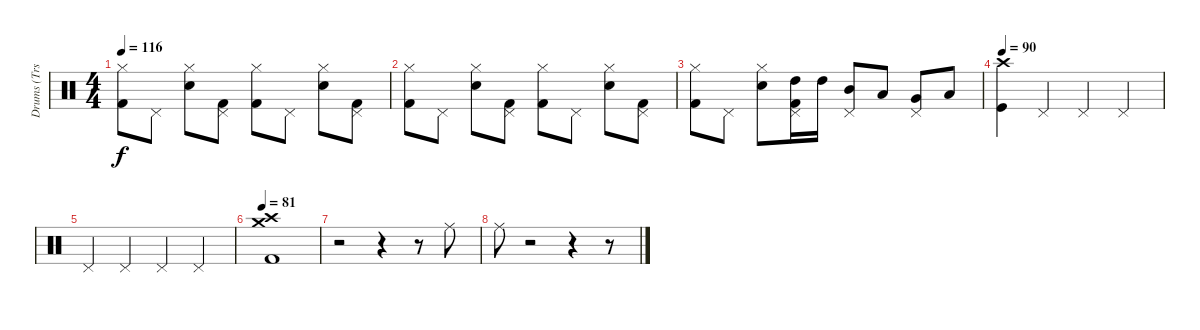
\track ("Drums (Trs. 7-8A, 10A/7-8B, 10B, 12-13B)" "Drums (Trs") {mute instrument percussion}
\staff {score}
\articulation defaults
\ts (4 4)
\tempo 116
\clef neutral
\ks c
("Hi-Hat (closed)" "Kick (hit) 2").8{dy f} "Pedal Hi-Hat (hit)".8 ("Electric Snare (hit)" "Hi-Hat (closed)").8 ("Pedal Hi-Hat (hit)" "Kick (hit) 2").8 ("Hi-Hat (closed)" "Kick (hit) 2").8 "Pedal Hi-Hat (hit)".8 ("Electric Snare (hit)" "Hi-Hat (closed)").8 ("Pedal Hi-Hat (hit)" "Kick (hit) 2").8 |
("Hi-Hat (closed)" "Kick (hit) 2").8 "Pedal Hi-Hat (hit)".8 ("Electric Snare (hit)" "Hi-Hat (closed)").8 ("Pedal Hi-Hat (hit)" "Kick (hit) 2").8 ("Hi-Hat (closed)" "Kick (hit) 2").8 "Pedal Hi-Hat (hit)".8 ("Electric Snare (hit)" "Hi-Hat (closed)").8 ("Pedal Hi-Hat (hit)" "Kick (hit) 2").8 |
("Hi-Hat (closed)" "Kick (hit) 2").8 "Pedal Hi-Hat (hit)".8 ("Electric Snare (hit)" "Hi-Hat (closed)").8 ("Pedal Hi-Hat (hit)" "High Tom (hit)" "Kick (hit) 2").16 "High Tom (hit)".16 ("Pedal Hi-Hat (hit)" "Mid Tom (hit)").8 "Low Tom (hit)".8 ("Pedal Hi-Hat (hit)" "Very Low Tom (hit)").8 "Low Floor Tom (hit)".8 |
\tempo 90
("Kick (hit)" "Crash high (hit)").4 "Pedal Hi-Hat (hit)".4 "Pedal Hi-Hat (hit)".4 "Pedal Hi-Hat (hit)".4 |
"Pedal Hi-Hat (hit)".4 "Pedal Hi-Hat (hit)".4 "Pedal Hi-Hat (hit)".4 "Pedal Hi-Hat (hit)".4 |
\tempo 81
("Crash medium (hit)" "Crash high (hit)" "Kick (hit) 2").1 |
r.2 r.4 r.8 "Ride (middle)".8 |
"Ride (middle)".8 r.2 r.4 r.8
